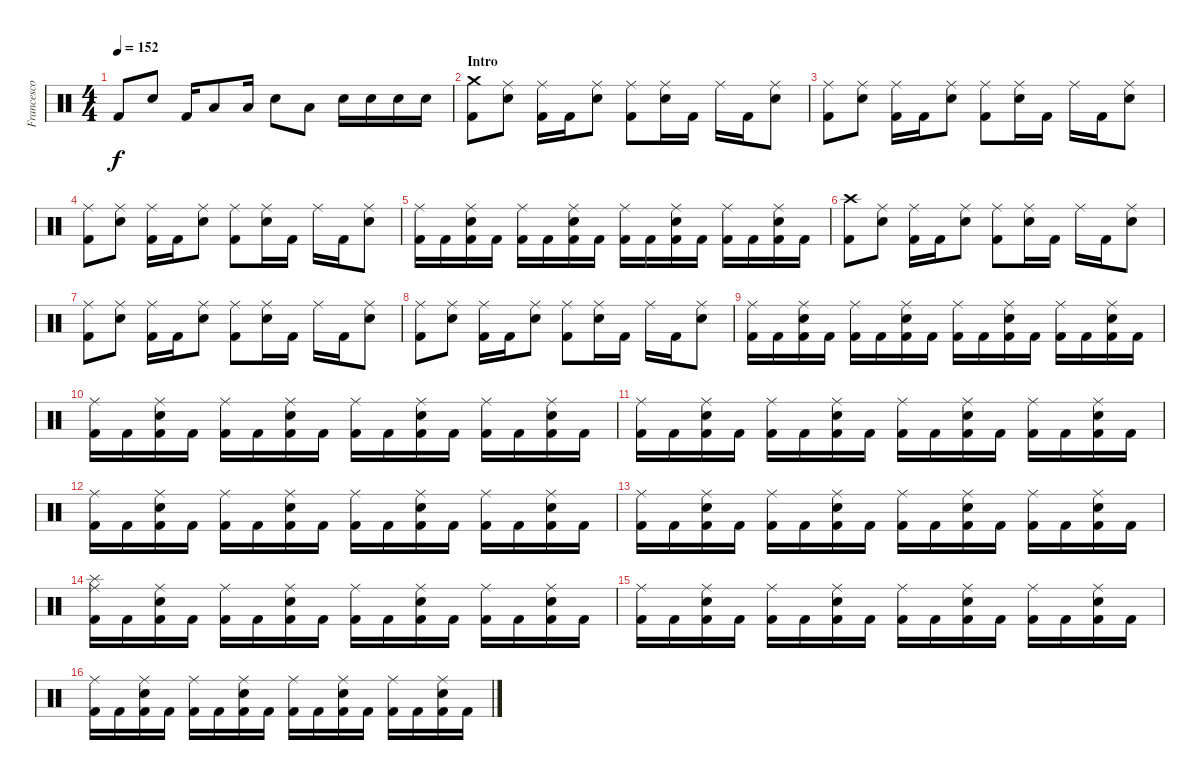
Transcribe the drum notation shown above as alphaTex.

\track ("Francesco Tresa" "Francesco ") {instrument percussion}
\staff {score}
\articulation defaults
\ts (4 4)
\tempo 152
\clef neutral
\ks c "Kick (hit) 2".8{dy f} "Snare (hit) 2".8 "Kick (hit) 2".16 "Low Tom (hit)".8 "Low Tom (hit)".16 "Snare (hit) 2".8 "Low Tom (hit)".8 "Snare (hit) 2".16 "Snare (hit) 2".16 "Snare (hit) 2".16 "Snare (hit) 2".16
|
\section ("" "Intro")
("Kick (hit) 2" "Crash medium (hit)").8 ("Snare (hit) 2" "Ride (middle)").8 ("Kick (hit) 2" "Ride (middle)").16 "Kick (hit) 2".16 ("Snare (hit) 2" "Ride (middle)").8 ("Kick (hit) 2" "Ride (middle)").8 ("Snare (hit) 2" "Ride (middle)").16 "Kick (hit) 2".16 "Ride (middle)".16 "Kick (hit) 2".16 ("Snare (hit) 2" "Ride (middle)").8 |
("Kick (hit) 2" "Ride (middle)").8 ("Snare (hit) 2" "Ride (middle)").8 ("Kick (hit) 2" "Ride (middle)").16 "Kick (hit) 2".16 ("Snare (hit) 2" "Ride (middle)").8 ("Kick (hit) 2" "Ride (middle)").8 ("Snare (hit) 2" "Ride (middle)").16 "Kick (hit) 2".16 "Ride (middle)".16 "Kick (hit) 2".16 ("Snare (hit) 2" "Ride (middle)").8 |
("Kick (hit) 2" "Ride (middle)").8 ("Snare (hit) 2" "Ride (middle)").8 ("Kick (hit) 2" "Ride (middle)").16 "Kick (hit) 2".16 ("Snare (hit) 2" "Ride (middle)").8 ("Kick (hit) 2" "Ride (middle)").8 ("Snare (hit) 2" "Ride (middle)").16 "Kick (hit) 2".16 "Ride (middle)".16 "Kick (hit) 2".16 ("Snare (hit) 2" "Ride (middle)").8 |
("Kick (hit) 2" "Ride (middle)").16 "Kick (hit) 2".16 ("Kick (hit) 2" "Snare (hit) 2" "Ride (middle)").16 "Kick (hit) 2".16 ("Kick (hit) 2" "Ride (middle)").16 "Kick (hit) 2".16 ("Kick (hit) 2" "Snare (hit) 2" "Ride (middle)").16 "Kick (hit) 2".16 ("Kick (hit) 2" "Ride (middle)").16 "Kick (hit) 2".16 ("Kick (hit) 2" "Snare (hit) 2" "Ride (middle)").16 "Kick (hit) 2".16 ("Kick (hit) 2" "Ride (middle)").16 "Kick (hit) 2".16 ("Kick (hit) 2" "Snare (hit) 2" "Ride (middle)").16 "Kick (hit) 2".16 |
("Kick (hit) 2" "Crash high (hit)").8 ("Snare (hit) 2" "Ride (middle)").8 ("Kick (hit) 2" "Ride (middle)").16 "Kick (hit) 2".16 ("Snare (hit) 2" "Ride (middle)").8 ("Kick (hit) 2" "Ride (middle)").8 ("Snare (hit) 2" "Ride (middle)").16 "Kick (hit) 2".16 "Ride (middle)".16 "Kick (hit) 2".16 ("Snare (hit) 2" "Ride (middle)").8 |
("Kick (hit) 2" "Ride (middle)").8 ("Snare (hit) 2" "Ride (middle)").8 ("Kick (hit) 2" "Ride (middle)").16 "Kick (hit) 2".16 ("Snare (hit) 2" "Ride (middle)").8 ("Kick (hit) 2" "Ride (middle)").8 ("Snare (hit) 2" "Ride (middle)").16 "Kick (hit) 2".16 "Ride (middle)".16 "Kick (hit) 2".16 ("Snare (hit) 2" "Ride (middle)").8 |
("Kick (hit) 2" "Ride (middle)").8 ("Snare (hit) 2" "Ride (middle)").8 ("Kick (hit) 2" "Ride (middle)").16 "Kick (hit) 2".16 ("Snare (hit) 2" "Ride (middle)").8 ("Kick (hit) 2" "Ride (middle)").8 ("Snare (hit) 2" "Ride (middle)").16 "Kick (hit) 2".16 "Ride (middle)".16 "Kick (hit) 2".16 ("Snare (hit) 2" "Ride (middle)").8 |
("Kick (hit) 2" "Ride (middle)").16 "Kick (hit) 2".16 ("Kick (hit) 2" "Snare (hit) 2" "Ride (middle)").16 "Kick (hit) 2".16 ("Kick (hit) 2" "Ride (middle)").16 "Kick (hit) 2".16 ("Kick (hit) 2" "Snare (hit) 2" "Ride (middle)").16 "Kick (hit) 2".16 ("Kick (hit) 2" "Ride (middle)").16 "Kick (hit) 2".16 ("Kick (hit) 2" "Snare (hit) 2" "Ride (middle)").16 "Kick (hit) 2".16 ("Kick (hit) 2" "Ride (middle)").16 "Kick (hit) 2".16 ("Kick (hit) 2" "Snare (hit) 2" "Ride (middle)").16 "Kick (hit) 2".16 |
("Kick (hit) 2" "Ride (middle)").16 "Kick (hit) 2".16 ("Kick (hit) 2" "Snare (hit) 2" "Ride (middle)").16 "Kick (hit) 2".16 ("Kick (hit) 2" "Ride (middle)").16 "Kick (hit) 2".16 ("Kick (hit) 2" "Snare (hit) 2" "Ride (middle)").16 "Kick (hit) 2".16 ("Kick (hit) 2" "Ride (middle)").16 "Kick (hit) 2".16 ("Kick (hit) 2" "Snare (hit) 2" "Ride (middle)").16 "Kick (hit) 2".16 ("Kick (hit) 2" "Ride (middle)").16 "Kick (hit) 2".16 ("Kick (hit) 2" "Snare (hit) 2" "Ride (middle)").16 "Kick (hit) 2".16 |
("Kick (hit) 2" "Ride (middle)").16 "Kick (hit) 2".16 ("Kick (hit) 2" "Snare (hit) 2" "Ride (middle)").16 "Kick (hit) 2".16 ("Kick (hit) 2" "Ride (middle)").16 "Kick (hit) 2".16 ("Kick (hit) 2" "Snare (hit) 2" "Ride (middle)").16 "Kick (hit) 2".16 ("Kick (hit) 2" "Ride (middle)").16 "Kick (hit) 2".16 ("Kick (hit) 2" "Snare (hit) 2" "Ride (middle)").16 "Kick (hit) 2".16 ("Kick (hit) 2" "Ride (middle)").16 "Kick (hit) 2".16 ("Kick (hit) 2" "Snare (hit) 2" "Ride (middle)").16 "Kick (hit) 2".16 |
("Kick (hit) 2" "Ride (middle)").16 "Kick (hit) 2".16 ("Kick (hit) 2" "Snare (hit) 2" "Ride (middle)").16 "Kick (hit) 2".16 ("Kick (hit) 2" "Ride (middle)").16 "Kick (hit) 2".16 ("Kick (hit) 2" "Snare (hit) 2" "Ride (middle)").16 "Kick (hit) 2".16 ("Kick (hit) 2" "Ride (middle)").16 "Kick (hit) 2".16 ("Kick (hit) 2" "Snare (hit) 2" "Ride (middle)").16 "Kick (hit) 2".16 ("Kick (hit) 2" "Ride (middle)").16 "Kick (hit) 2".16 ("Kick (hit) 2" "Snare (hit) 2" "Ride (middle)").16 "Kick (hit) 2".16 |
("Kick (hit) 2" "Ride (middle)").16 "Kick (hit) 2".16 ("Kick (hit) 2" "Snare (hit) 2" "Ride (middle)").16 "Kick (hit) 2".16 ("Kick (hit) 2" "Ride (middle)").16 "Kick (hit) 2".16 ("Kick (hit) 2" "Snare (hit) 2" "Ride (middle)").16 "Kick (hit) 2".16 ("Kick (hit) 2" "Ride (middle)").16 "Kick (hit) 2".16 ("Kick (hit) 2" "Snare (hit) 2" "Ride (middle)").16 "Kick (hit) 2".16 ("Kick (hit) 2" "Ride (middle)").16 "Kick (hit) 2".16 ("Kick (hit) 2" "Snare (hit) 2" "Ride (middle)").16 "Kick (hit) 2".16 |
("Kick (hit) 2" "Ride (middle)" "Splash (hit)").16 "Kick (hit) 2".16 ("Kick (hit) 2" "Snare (hit) 2" "Ride (middle)").16 "Kick (hit) 2".16 ("Kick (hit) 2" "Ride (middle)").16 "Kick (hit) 2".16 ("Kick (hit) 2" "Snare (hit) 2" "Ride (middle)").16 "Kick (hit) 2".16 ("Kick (hit) 2" "Ride (middle)").16 "Kick (hit) 2".16 ("Kick (hit) 2" "Snare (hit) 2" "Ride (middle)").16 "Kick (hit) 2".16 ("Kick (hit) 2" "Ride (middle)").16 "Kick (hit) 2".16 ("Kick (hit) 2" "Snare (hit) 2" "Ride (middle)").16 "Kick (hit) 2".16 |
("Kick (hit) 2" "Ride (middle)").16 "Kick (hit) 2".16 ("Kick (hit) 2" "Snare (hit) 2" "Ride (middle)").16 "Kick (hit) 2".16 ("Kick (hit) 2" "Ride (middle)").16 "Kick (hit) 2".16 ("Kick (hit) 2" "Snare (hit) 2" "Ride (middle)").16 "Kick (hit) 2".16 ("Kick (hit) 2" "Ride (middle)").16 "Kick (hit) 2".16 ("Kick (hit) 2" "Snare (hit) 2" "Ride (middle)").16 "Kick (hit) 2".16 ("Kick (hit) 2" "Ride (middle)").16 "Kick (hit) 2".16 ("Kick (hit) 2" "Snare (hit) 2" "Ride (middle)").16 "Kick (hit) 2".16 |
("Kick (hit) 2" "Ride (middle)").16 "Kick (hit) 2".16 ("Kick (hit) 2" "Snare (hit) 2" "Ride (middle)").16 "Kick (hit) 2".16 ("Kick (hit) 2" "Ride (middle)").16 "Kick (hit) 2".16 ("Kick (hit) 2" "Snare (hit) 2" "Ride (middle)").16 "Kick (hit) 2".16 ("Kick (hit) 2" "Ride (middle)").16 "Kick (hit) 2".16 ("Kick (hit) 2" "Snare (hit) 2" "Ride (middle)").16 "Kick (hit) 2".16 ("Kick (hit) 2" "Ride (middle)").16 "Kick (hit) 2".16 ("Kick (hit) 2" "Snare (hit) 2" "Ride (middle)").16 "Kick (hit) 2".16
